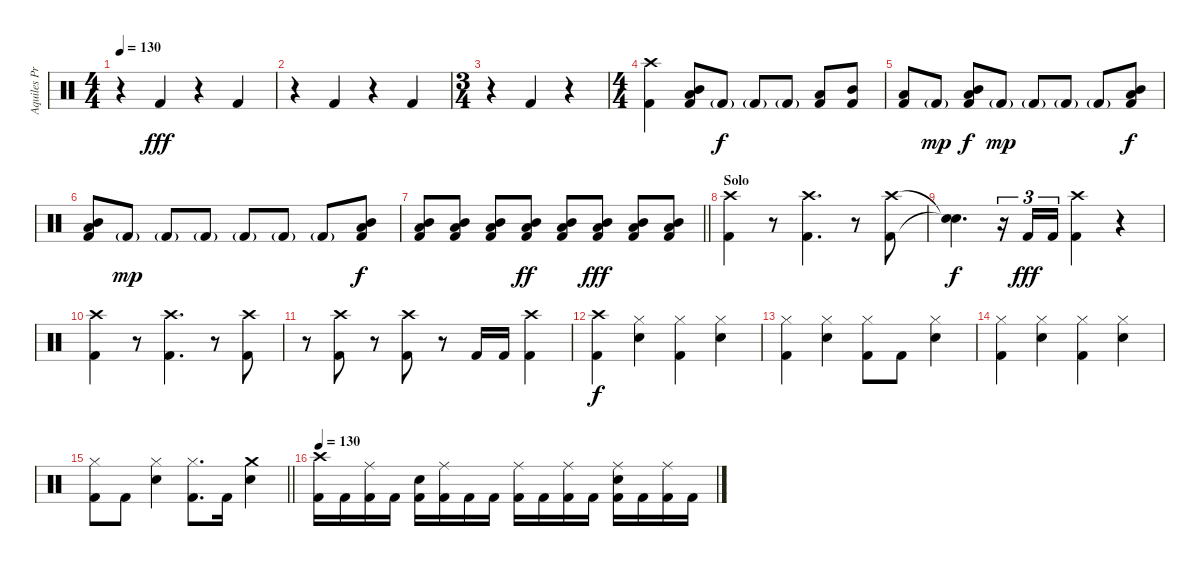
\track ("Aquiles Priester" "Aquiles Pr") {instrument percussion}
\staff {score}
\articulation defaults
\ts (4 4)
\tempo 130
\clef neutral
\ks c
r.4{dy fff} "Kick (hit) 2".4 r.4 "Kick (hit) 2".4 |
r.4 "Kick (hit) 2".4 r.4 "Kick (hit) 2".4 |
\ts (3 4)
r.4 "Kick (hit) 2".4 r.4 |
\ts (4 4)
("Crash high (hit)" "Kick (hit) 2").4 ("Mid Tom (hit)" "Low Tom (hit)" "Kick (hit) 2").8 "Kick (hit) 2"{g}.8{dy f} "Kick (hit) 2"{g}.8 "Kick (hit) 2"{g}.8 ("Low Tom (hit)" "Kick (hit) 2").8 ("Mid Tom (hit)" "Kick (hit) 2").8 |
("Low Tom (hit)" "Kick (hit) 2").8 "Kick (hit) 2"{g}.8{dy mp} ("Mid Tom (hit)" "Low Tom (hit)" "Kick (hit) 2").8{dy f} "Kick (hit) 2"{g}.8{dy mp} "Kick (hit) 2"{g}.8 "Kick (hit) 2"{g}.8 "Kick (hit) 2"{g}.8 ("Mid Tom (hit)" "Low Tom (hit)" "Kick (hit) 2").8{dy f} |
("Mid Tom (hit)" "Low Tom (hit)" "Kick (hit) 2").8 "Kick (hit) 2"{g}.8{dy mp} "Kick (hit) 2"{g}.8 "Kick (hit) 2"{g}.8 "Kick (hit) 2"{g}.8 "Kick (hit) 2"{g}.8 "Kick (hit) 2"{g}.8 ("Mid Tom (hit)" "Low Tom (hit)" "Kick (hit) 2").8{dy f} |
\barLineRight lightlight
("Mid Tom (hit)" "Low Tom (hit)" "Kick (hit) 2").8 ("Mid Tom (hit)" "Low Tom (hit)" "Kick (hit) 2").8 ("Mid Tom (hit)" "Low Tom (hit)" "Kick (hit) 2").8 ("Mid Tom (hit)" "Low Tom (hit)" "Kick (hit) 2").8{dy ff} ("Mid Tom (hit)" "Low Tom (hit)" "Kick (hit) 2").8 ("Mid Tom (hit)" "Low Tom (hit)" "Kick (hit) 2").8{dy fff} ("Mid Tom (hit)" "Low Tom (hit)" "Kick (hit) 2").8 ("Mid Tom (hit)" "Low Tom (hit)" "Kick (hit) 2").8 |
\section ("" "Solo")
("Crash high (hit)" "Kick (hit) 2").4 r.8 ("Crash high (hit)" "Kick (hit) 2").4{d} r.8 ("Crash high (hit)" "Kick (hit) 2").8 |
("Snare (hit)"{t} "Snare (hit)"{t}).4{d dy f} r.16{tu (3 2)} "Kick (hit) 2".16{tu (3 2) dy fff} "Kick (hit) 2".16{tu (3 2)} ("Crash high (hit)" "Kick (hit) 2").4 r.4 |
("Crash high (hit)" "Kick (hit) 2").4 r.8 ("Crash high (hit)" "Kick (hit) 2").4{d} r.8 ("Crash high (hit)" "Kick (hit) 2").8 |
r.8 ("Crash high (hit)" "Kick (hit) 2").8 r.8 ("Crash high (hit)" "Kick (hit) 2").8 r.8 "Kick (hit) 2".16 "Kick (hit) 2".16 ("Crash high (hit)" "Kick (hit) 2").4 |
("Crash high (hit)" "Kick (hit) 2").4{dy f} ("Hi-Hat (closed)" "Electric Snare (hit)").4 ("Hi-Hat (closed)" "Kick (hit) 2").4 ("Hi-Hat (closed)" "Electric Snare (hit)").4 |
("Hi-Hat (closed)" "Kick (hit) 2").4 ("Hi-Hat (closed)" "Electric Snare (hit)").4 ("Hi-Hat (closed)" "Kick (hit) 2").8 "Kick (hit) 2".8 ("Hi-Hat (closed)" "Electric Snare (hit)").4 |
("Hi-Hat (closed)" "Kick (hit) 2").4 ("Hi-Hat (closed)" "Electric Snare (hit)").4 ("Hi-Hat (closed)" "Kick (hit) 2").4 ("Hi-Hat (closed)" "Electric Snare (hit)").4 |
\barLineRight lightlight
("Hi-Hat (closed)" "Kick (hit) 2").8 "Kick (hit) 2".8 ("Hi-Hat (closed)" "Electric Snare (hit)").4 ("Hi-Hat (closed)" "Kick (hit) 2").8{d} "Kick (hit) 2".16 ("Crash medium (hit)" "Electric Snare (hit)").4 |
\tempo 130
("Crash high (hit)" "Kick (hit) 2").16 "Kick (hit) 2".16 ("Ride (middle)" "Kick (hit) 2").16 "Kick (hit) 2".16 ("Electric Snare (hit)" "Kick (hit) 2").16 ("Ride (middle)" "Kick (hit) 2").16 "Kick (hit) 2".16 "Kick (hit) 2".16 ("Ride (middle)" "Kick (hit) 2").16 "Kick (hit) 2".16 ("Ride (middle)" "Kick (hit) 2").16 "Kick (hit) 2".16 ("Ride (middle)" "Electric Snare (hit)" "Kick (hit) 2").16 "Kick (hit) 2".16 ("Ride (middle)" "Kick (hit) 2").16 "Kick (hit) 2".16
